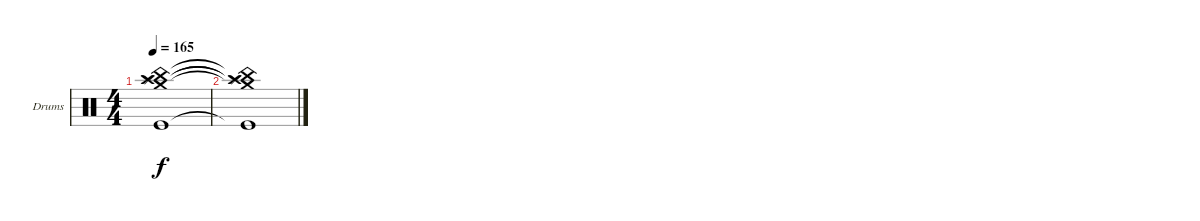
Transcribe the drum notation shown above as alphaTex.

\defaultSystemsLayout 4
\bracketExtendMode groupsimilarinstruments
\firstSystemTrackNameOrientation horizontal
\otherSystemsTrackNameOrientation horizontal
\track ("Drumkit" "Drums") {instrument percussion}
\staff {score}
\articulation defaults
\ts (4 4)
\tempo 165
\clef neutral
\ks c
("Kick (hit)" "China (hit)" "Splash (hit)" "Crash high (hit)" "Crash medium (hit)").1{dy f} |
("Kick (hit)"{t} "China (hit)"{t} "Splash (hit)"{t} "Crash high (hit)"{t} "Crash medium (hit)"{t}).1
